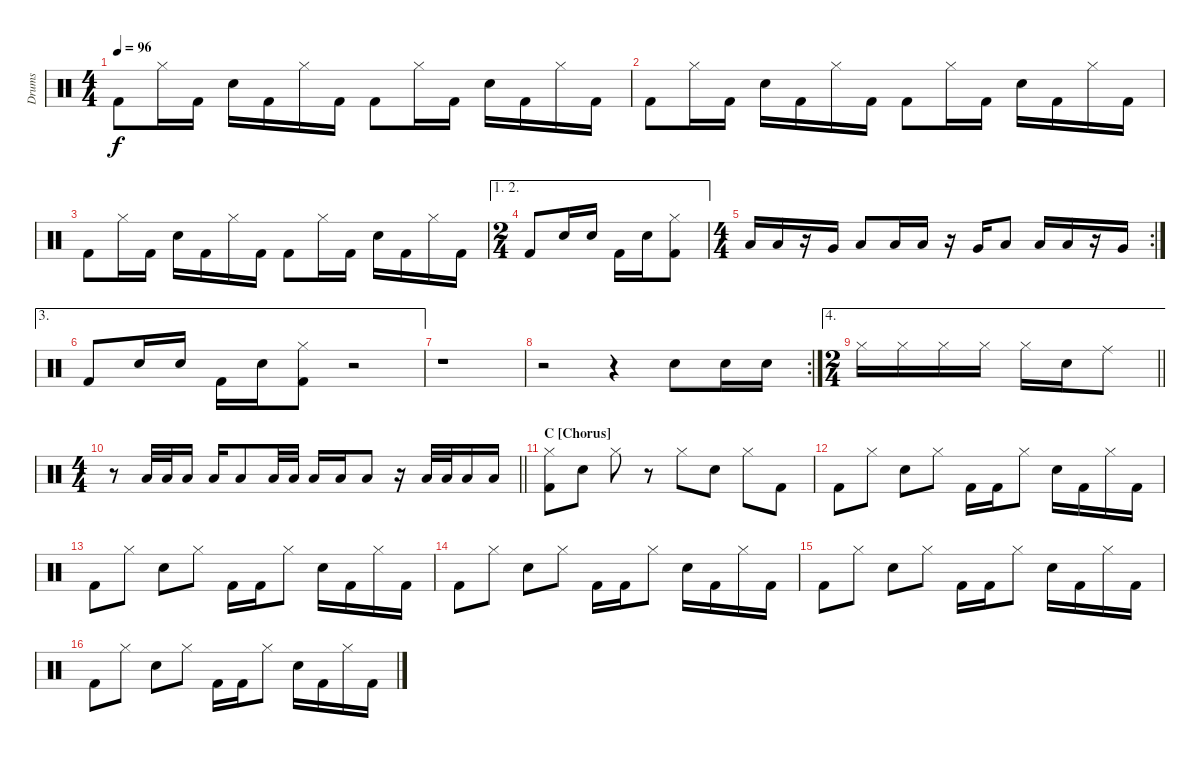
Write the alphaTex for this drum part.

\track ("Drums" "Drums") {instrument percussion}
\staff {score}
\articulation defaults
\ts (4 4)
\tempo 96
\clef neutral
\ks c "Kick (hit) 2".8{dy f} "Hi-Hat (closed)".16 "Kick (hit) 2".16 "Snare (hit) 2".16 "Kick (hit) 2".16 "Hi-Hat (closed)".16 "Kick (hit) 2".16 "Kick (hit) 2".8 "Hi-Hat (closed)".16 "Kick (hit) 2".16 "Snare (hit) 2".16 "Kick (hit) 2".16 "Hi-Hat (closed)".16 "Kick (hit) 2".16
|
"Kick (hit) 2".8 "Hi-Hat (closed)".16 "Kick (hit) 2".16 "Snare (hit) 2".16 "Kick (hit) 2".16 "Hi-Hat (closed)".16 "Kick (hit) 2".16 "Kick (hit) 2".8 "Hi-Hat (closed)".16 "Kick (hit) 2".16 "Snare (hit) 2".16 "Kick (hit) 2".16 "Hi-Hat (closed)".16 "Kick (hit) 2".16 |
"Kick (hit) 2".8 "Hi-Hat (closed)".16 "Kick (hit) 2".16 "Snare (hit) 2".16 "Kick (hit) 2".16 "Hi-Hat (closed)".16 "Kick (hit) 2".16 "Kick (hit) 2".8 "Hi-Hat (closed)".16 "Kick (hit) 2".16 "Snare (hit) 2".16 "Kick (hit) 2".16 "Hi-Hat (closed)".16 "Kick (hit) 2".16 |
\ae (1 2)
\ts (2 4)
"Kick (hit) 2".8 "Snare (hit) 2".16 "Snare (hit) 2".16 "Kick (hit) 2".16 "Snare (hit) 2".16 ("Hi-Hat (closed)" "Kick (hit) 2").8 |
\rc 2
\ts (4 4)
"Low Tom (hit)".16 "Low Tom (hit)".16 r.16 "Very Low Tom (hit)".16 "Low Tom (hit)".8 "Low Tom (hit)".16 "Low Tom (hit)".16 r.16 "Very Low Tom (hit)".16 "Low Tom (hit)".8 "Low Tom (hit)".16 "Low Tom (hit)".16 r.16 "Very Low Tom (hit)".16 |
\ae 3 "Kick (hit) 2".8 "Snare (hit) 2".16 "Snare (hit) 2".16 "Kick (hit) 2".16 "Snare (hit) 2".16
("Hi-Hat (closed)" "Kick (hit) 2").8 r.2 |
r.1 |
\rc 2
r.2 r.4 "Snare (hit) 2".8 "Snare (hit) 2".16 "Snare (hit) 2".16 |
\ae 4
\ts (2 4)
\barLineRight lightlight "Hi-Hat (closed)".16 "Hi-Hat (closed)".16 "Hi-Hat (closed)".16 "Hi-Hat (closed)".16 "Hi-Hat (closed)".16 "Snare (hit) 2".16 "Ride (middle)".8
|
\ts (4 4)
\barLineRight lightlight
r.8 "Low Tom (hit)".32 "Low Tom (hit)".32 "Low Tom (hit)".16 "Low Tom (hit)".16 "Low Tom (hit)".8 "Low Tom (hit)".32 "Low Tom (hit)".32 "Low Tom (hit)".16 "Low Tom (hit)".16 "Low Tom (hit)".8 r.16 "Low Tom (hit)".32 "Low Tom (hit)".32 "Low Tom (hit)".16 "Low Tom (hit)".16 |
\section ("" "C [Chorus]")
("Hi-Hat (closed)" "Kick (hit) 2").8 "Snare (hit) 2".8 "Hi-Hat (closed)".8 r.8 "Hi-Hat (closed)".8 "Snare (hit) 2".8 "Hi-Hat (closed)".8 "Kick (hit) 2".8 |
"Kick (hit) 2".8 "Hi-Hat (closed)".8 "Snare (hit) 2".8 "Hi-Hat (closed)".8 "Kick (hit) 2".16 "Kick (hit) 2".16 "Hi-Hat (closed)".8 "Snare (hit) 2".16 "Kick (hit) 2".16 "Hi-Hat (closed)".16 "Kick (hit) 2".16 |
"Kick (hit) 2".8 "Hi-Hat (closed)".8 "Snare (hit) 2".8 "Hi-Hat (closed)".8 "Kick (hit) 2".16 "Kick (hit) 2".16 "Hi-Hat (closed)".8 "Snare (hit) 2".16 "Kick (hit) 2".16 "Hi-Hat (closed)".16 "Kick (hit) 2".16 |
"Kick (hit) 2".8 "Hi-Hat (closed)".8 "Snare (hit) 2".8 "Hi-Hat (closed)".8 "Kick (hit) 2".16 "Kick (hit) 2".16 "Hi-Hat (closed)".8 "Snare (hit) 2".16 "Kick (hit) 2".16 "Hi-Hat (closed)".16 "Kick (hit) 2".16 |
"Kick (hit) 2".8 "Hi-Hat (closed)".8 "Snare (hit) 2".8 "Hi-Hat (closed)".8 "Kick (hit) 2".16 "Kick (hit) 2".16 "Hi-Hat (closed)".8 "Snare (hit) 2".16 "Kick (hit) 2".16 "Hi-Hat (closed)".16 "Kick (hit) 2".16 |
"Kick (hit) 2".8 "Hi-Hat (closed)".8 "Snare (hit) 2".8 "Hi-Hat (closed)".8 "Kick (hit) 2".16 "Kick (hit) 2".16 "Hi-Hat (closed)".8 "Snare (hit) 2".16 "Kick (hit) 2".16 "Hi-Hat (closed)".16 "Kick (hit) 2".16
